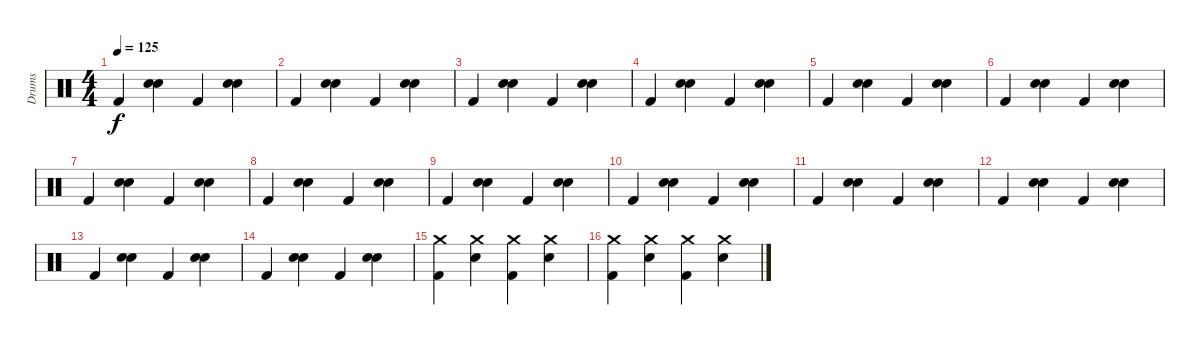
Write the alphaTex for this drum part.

\track ("Drums" "Drums") {instrument percussion}
\staff {score}
\articulation defaults
\ts (4 4)
\tempo 125
\clef neutral
\ks c "Kick (hit) 2".4{dy f}
("Electric Snare (hit)" "Hand Clap (hit)").4 "Kick (hit) 2".4 ("Electric Snare (hit)" "Hand Clap (hit)").4 |
"Kick (hit) 2".4 ("Electric Snare (hit)" "Hand Clap (hit)").4 "Kick (hit) 2".4 ("Electric Snare (hit)" "Hand Clap (hit)").4 |
"Kick (hit) 2".4 ("Electric Snare (hit)" "Hand Clap (hit)").4 "Kick (hit) 2".4 ("Electric Snare (hit)" "Hand Clap (hit)").4 |
"Kick (hit) 2".4 ("Electric Snare (hit)" "Hand Clap (hit)").4 "Kick (hit) 2".4 ("Electric Snare (hit)" "Hand Clap (hit)").4 |
"Kick (hit) 2".4 ("Electric Snare (hit)" "Hand Clap (hit)").4 "Kick (hit) 2".4 ("Electric Snare (hit)" "Hand Clap (hit)").4 |
"Kick (hit) 2".4 ("Electric Snare (hit)" "Hand Clap (hit)").4 "Kick (hit) 2".4 ("Electric Snare (hit)" "Hand Clap (hit)").4 |
"Kick (hit) 2".4 ("Electric Snare (hit)" "Hand Clap (hit)").4 "Kick (hit) 2".4 ("Electric Snare (hit)" "Hand Clap (hit)").4 |
"Kick (hit) 2".4 ("Electric Snare (hit)" "Hand Clap (hit)").4 "Kick (hit) 2".4 ("Electric Snare (hit)" "Hand Clap (hit)").4 |
"Kick (hit) 2".4 ("Electric Snare (hit)" "Hand Clap (hit)").4 "Kick (hit) 2".4 ("Electric Snare (hit)" "Hand Clap (hit)").4 |
"Kick (hit) 2".4 ("Electric Snare (hit)" "Hand Clap (hit)").4 "Kick (hit) 2".4 ("Electric Snare (hit)" "Hand Clap (hit)").4 |
"Kick (hit) 2".4 ("Electric Snare (hit)" "Hand Clap (hit)").4 "Kick (hit) 2".4 ("Electric Snare (hit)" "Hand Clap (hit)").4 |
"Kick (hit) 2".4 ("Electric Snare (hit)" "Hand Clap (hit)").4 "Kick (hit) 2".4 ("Electric Snare (hit)" "Hand Clap (hit)").4 |
"Kick (hit) 2".4 ("Electric Snare (hit)" "Hand Clap (hit)").4 "Kick (hit) 2".4 ("Electric Snare (hit)" "Hand Clap (hit)").4 |
"Kick (hit) 2".4 ("Electric Snare (hit)" "Hand Clap (hit)").4 "Kick (hit) 2".4 ("Electric Snare (hit)" "Hand Clap (hit)").4 |
("Kick (hit) 2" "Crash medium (hit)").4 ("Electric Snare (hit)" "Crash medium (hit)").4 ("Kick (hit) 2" "Crash medium (hit)").4 ("Electric Snare (hit)" "Crash medium (hit)").4 |
("Kick (hit) 2" "Crash medium (hit)").4 ("Electric Snare (hit)" "Crash medium (hit)").4 ("Kick (hit) 2" "Crash medium (hit)").4 ("Electric Snare (hit)" "Crash medium (hit)").4
